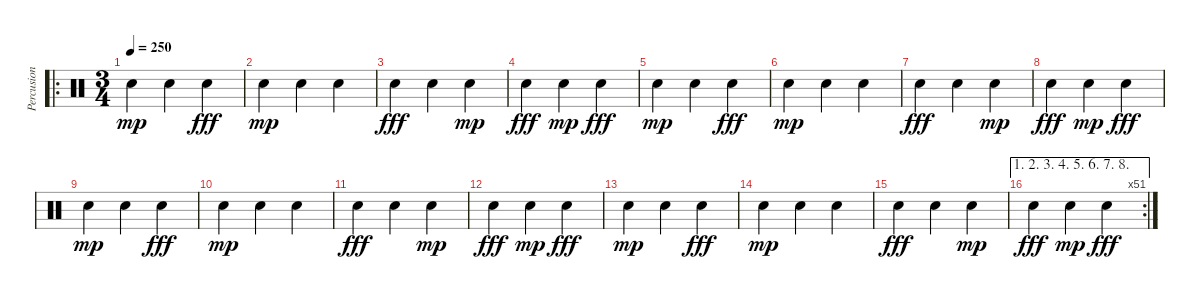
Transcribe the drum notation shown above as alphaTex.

\track ("Percusion" "Percusion") {instrument percussion}
\staff {score}
\articulation defaults
\ro
\ts (3 4)
\tempo 250
\clef neutral
\ks c "Hand Clap (hit)".4{dy mp} "Hand Clap (hit)".4 "Hand Clap (hit)".4{dy fff}
|
"Hand Clap (hit)".4{dy mp} "Hand Clap (hit)".4 "Hand Clap (hit)".4 |
"Hand Clap (hit)".4{dy fff} "Hand Clap (hit)".4 "Hand Clap (hit)".4{dy mp} |
"Hand Clap (hit)".4{dy fff} "Hand Clap (hit)".4{dy mp} "Hand Clap (hit)".4{dy fff} |
"Hand Clap (hit)".4{dy mp} "Hand Clap (hit)".4 "Hand Clap (hit)".4{dy fff} |
"Hand Clap (hit)".4{dy mp} "Hand Clap (hit)".4 "Hand Clap (hit)".4 |
"Hand Clap (hit)".4{dy fff} "Hand Clap (hit)".4 "Hand Clap (hit)".4{dy mp} |
"Hand Clap (hit)".4{dy fff} "Hand Clap (hit)".4{dy mp} "Hand Clap (hit)".4{dy fff} |
"Hand Clap (hit)".4{dy mp} "Hand Clap (hit)".4 "Hand Clap (hit)".4{dy fff} |
"Hand Clap (hit)".4{dy mp} "Hand Clap (hit)".4 "Hand Clap (hit)".4 |
"Hand Clap (hit)".4{dy fff} "Hand Clap (hit)".4 "Hand Clap (hit)".4{dy mp} |
"Hand Clap (hit)".4{dy fff} "Hand Clap (hit)".4{dy mp} "Hand Clap (hit)".4{dy fff} |
"Hand Clap (hit)".4{dy mp} "Hand Clap (hit)".4 "Hand Clap (hit)".4{dy fff} |
"Hand Clap (hit)".4{dy mp} "Hand Clap (hit)".4 "Hand Clap (hit)".4 |
"Hand Clap (hit)".4{dy fff} "Hand Clap (hit)".4 "Hand Clap (hit)".4{dy mp} |
\ae (1 2 3 4 5 6 7 8)
\rc 51 "Hand Clap (hit)".4{dy fff} "Hand Clap (hit)".4{dy mp} "Hand Clap (hit)".4{dy fff}
